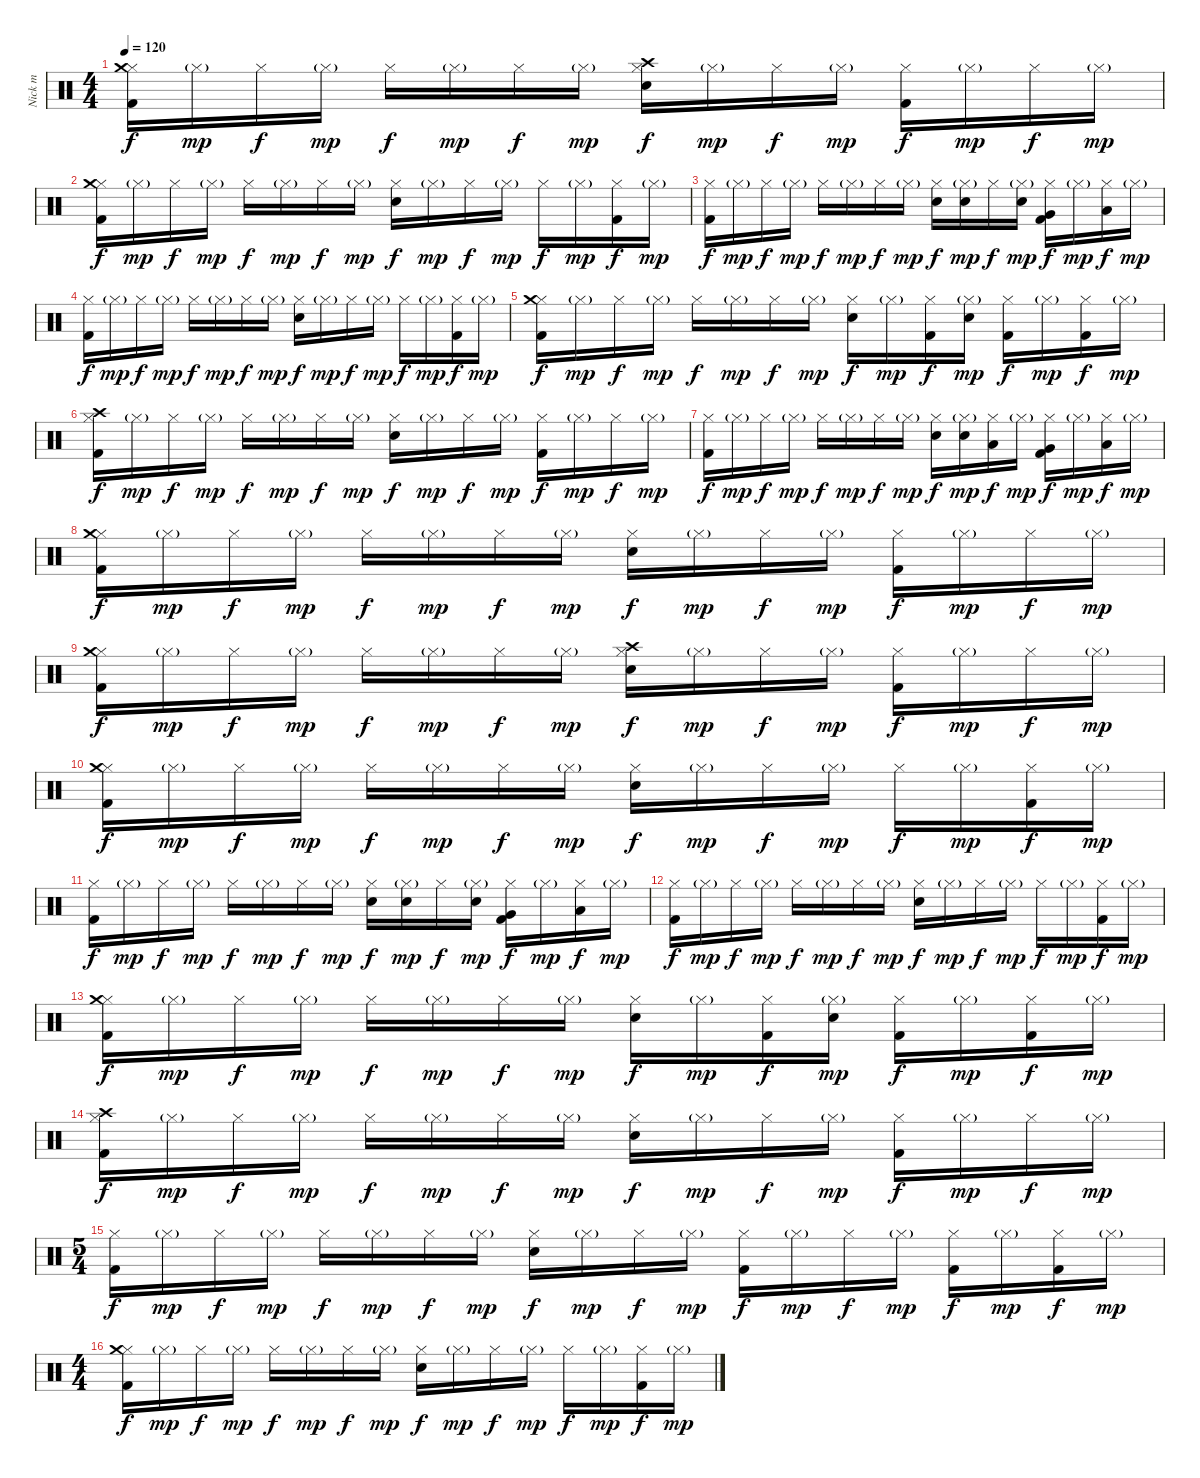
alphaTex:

\track ("Nick m" "Nick m") {instrument percussion}
\staff {score}
\articulation defaults
\ts (4 4)
\tempo 120
\clef neutral
\ks c
("Hi-Hat (closed)" "Crash medium (hit)" "Kick (hit) 2").16{dy f} "Hi-Hat (closed)"{g}.16{dy mp} "Hi-Hat (closed)".16{dy f} "Hi-Hat (closed)"{g}.16{dy mp} "Hi-Hat (closed)".16{dy f} "Hi-Hat (closed)"{g}.16{dy mp} "Hi-Hat (closed)".16{dy f} "Hi-Hat (closed)"{g}.16{dy mp} ("Hi-Hat (closed)" "Crash high (hit)" "Snare (hit) 2").16{dy f} "Hi-Hat (closed)"{g}.16{dy mp} "Hi-Hat (closed)".16{dy f} "Hi-Hat (closed)"{g}.16{dy mp} ("Hi-Hat (closed)" "Kick (hit) 2").16{dy f} "Hi-Hat (closed)"{g}.16{dy mp} "Hi-Hat (closed)".16{dy f} "Hi-Hat (closed)"{g}.16{dy mp} |
("Hi-Hat (closed)" "Crash medium (hit)" "Kick (hit) 2").16{dy f} "Hi-Hat (closed)"{g}.16{dy mp} "Hi-Hat (closed)".16{dy f} "Hi-Hat (closed)"{g}.16{dy mp} "Hi-Hat (closed)".16{dy f} "Hi-Hat (closed)"{g}.16{dy mp} "Hi-Hat (closed)".16{dy f} "Hi-Hat (closed)"{g}.16{dy mp} ("Hi-Hat (closed)" "Snare (hit) 2").16{dy f} "Hi-Hat (closed)"{g}.16{dy mp} "Hi-Hat (closed)".16{dy f} "Hi-Hat (closed)"{g}.16{dy mp} "Hi-Hat (closed)".16{dy f} "Hi-Hat (closed)"{g}.16{dy mp} ("Hi-Hat (closed)" "Kick (hit) 2").16{dy f} "Hi-Hat (closed)"{g}.16{dy mp} |
("Hi-Hat (closed)" "Kick (hit) 2").16{dy f} "Hi-Hat (closed)"{g}.16{dy mp} "Hi-Hat (closed)".16{dy f} "Hi-Hat (closed)"{g}.16{dy mp} "Hi-Hat (closed)".16{dy f} "Hi-Hat (closed)"{g}.16{dy mp} "Hi-Hat (closed)".16{dy f} "Hi-Hat (closed)"{g}.16{dy mp} ("Hi-Hat (closed)" "Snare (hit) 2").16{dy f} ("Hi-Hat (closed)"{g} "Snare (hit) 2").16{dy mp} "Hi-Hat (closed)".16{dy f} ("Hi-Hat (closed)"{g} "Snare (hit) 2").16{dy mp} ("Hi-Hat (closed)" "Very Low Tom (hit)" "Kick (hit) 2").16{dy f} "Hi-Hat (closed)"{g}.16{dy mp} ("Hi-Hat (closed)" "Low Floor Tom (hit)").16{dy f} "Hi-Hat (closed)"{g}.16{dy mp} |
("Hi-Hat (closed)" "Kick (hit) 2").16{dy f} "Hi-Hat (closed)"{g}.16{dy mp} "Hi-Hat (closed)".16{dy f} "Hi-Hat (closed)"{g}.16{dy mp} "Hi-Hat (closed)".16{dy f} "Hi-Hat (closed)"{g}.16{dy mp} "Hi-Hat (closed)".16{dy f} "Hi-Hat (closed)"{g}.16{dy mp} ("Hi-Hat (closed)" "Snare (hit) 2").16{dy f} "Hi-Hat (closed)"{g}.16{dy mp} "Hi-Hat (closed)".16{dy f} "Hi-Hat (closed)"{g}.16{dy mp} "Hi-Hat (closed)".16{dy f} "Hi-Hat (closed)"{g}.16{dy mp} ("Hi-Hat (closed)" "Kick (hit) 2").16{dy f} "Hi-Hat (closed)"{g}.16{dy mp} |
("Hi-Hat (closed)" "Crash medium (hit)" "Kick (hit) 2").16{dy f} "Hi-Hat (closed)"{g}.16{dy mp} "Hi-Hat (closed)".16{dy f} "Hi-Hat (closed)"{g}.16{dy mp} "Hi-Hat (closed)".16{dy f} "Hi-Hat (closed)"{g}.16{dy mp} "Hi-Hat (closed)".16{dy f} "Hi-Hat (closed)"{g}.16{dy mp} ("Hi-Hat (closed)" "Snare (hit) 2").16{dy f} "Hi-Hat (closed)"{g}.16{dy mp} ("Hi-Hat (closed)" "Kick (hit) 2").16{dy f} ("Hi-Hat (closed)"{g} "Snare (hit) 2").16{dy mp} ("Hi-Hat (closed)" "Kick (hit) 2").16{dy f} "Hi-Hat (closed)"{g}.16{dy mp} ("Hi-Hat (closed)" "Kick (hit) 2").16{dy f} "Hi-Hat (closed)"{g}.16{dy mp} |
("Hi-Hat (closed)" "Crash high (hit)" "Kick (hit) 2").16{dy f} "Hi-Hat (closed)"{g}.16{dy mp} "Hi-Hat (closed)".16{dy f} "Hi-Hat (closed)"{g}.16{dy mp} "Hi-Hat (closed)".16{dy f} "Hi-Hat (closed)"{g}.16{dy mp} "Hi-Hat (closed)".16{dy f} "Hi-Hat (closed)"{g}.16{dy mp} ("Hi-Hat (closed)" "Snare (hit) 2").16{dy f} "Hi-Hat (closed)"{g}.16{dy mp} "Hi-Hat (closed)".16{dy f} "Hi-Hat (closed)"{g}.16{dy mp} ("Hi-Hat (closed)" "Kick (hit) 2").16{dy f} "Hi-Hat (closed)"{g}.16{dy mp} "Hi-Hat (closed)".16{dy f} "Hi-Hat (closed)"{g}.16{dy mp} |
("Hi-Hat (closed)" "Kick (hit) 2").16{dy f} "Hi-Hat (closed)"{g}.16{dy mp} "Hi-Hat (closed)".16{dy f} "Hi-Hat (closed)"{g}.16{dy mp} "Hi-Hat (closed)".16{dy f} "Hi-Hat (closed)"{g}.16{dy mp} "Hi-Hat (closed)".16{dy f} "Hi-Hat (closed)"{g}.16{dy mp} ("Hi-Hat (closed)" "Snare (hit) 2").16{dy f} ("Hi-Hat (closed)"{g} "Snare (hit) 2").16{dy mp} ("Hi-Hat (closed)" "Low Tom (hit)").16{dy f} "Hi-Hat (closed)"{g}.16{dy mp} ("Hi-Hat (closed)" "Very Low Tom (hit)" "Kick (hit) 2").16{dy f} "Hi-Hat (closed)"{g}.16{dy mp} ("Hi-Hat (closed)" "Low Floor Tom (hit)").16{dy f} "Hi-Hat (closed)"{g}.16{dy mp} |
("Hi-Hat (closed)" "Crash medium (hit)" "Kick (hit) 2").16{dy f} "Hi-Hat (closed)"{g}.16{dy mp} "Hi-Hat (closed)".16{dy f} "Hi-Hat (closed)"{g}.16{dy mp} "Hi-Hat (closed)".16{dy f} "Hi-Hat (closed)"{g}.16{dy mp} "Hi-Hat (closed)".16{dy f} "Hi-Hat (closed)"{g}.16{dy mp} ("Hi-Hat (closed)" "Snare (hit) 2").16{dy f} "Hi-Hat (closed)"{g}.16{dy mp} "Hi-Hat (closed)".16{dy f} "Hi-Hat (closed)"{g}.16{dy mp} ("Hi-Hat (closed)" "Kick (hit) 2").16{dy f} "Hi-Hat (closed)"{g}.16{dy mp} "Hi-Hat (closed)".16{dy f} "Hi-Hat (closed)"{g}.16{dy mp} |
("Hi-Hat (closed)" "Crash medium (hit)" "Kick (hit) 2").16{dy f} "Hi-Hat (closed)"{g}.16{dy mp} "Hi-Hat (closed)".16{dy f} "Hi-Hat (closed)"{g}.16{dy mp} "Hi-Hat (closed)".16{dy f} "Hi-Hat (closed)"{g}.16{dy mp} "Hi-Hat (closed)".16{dy f} "Hi-Hat (closed)"{g}.16{dy mp} ("Hi-Hat (closed)" "Crash high (hit)" "Snare (hit) 2").16{dy f} "Hi-Hat (closed)"{g}.16{dy mp} "Hi-Hat (closed)".16{dy f} "Hi-Hat (closed)"{g}.16{dy mp} ("Hi-Hat (closed)" "Kick (hit) 2").16{dy f} "Hi-Hat (closed)"{g}.16{dy mp} "Hi-Hat (closed)".16{dy f} "Hi-Hat (closed)"{g}.16{dy mp} |
("Hi-Hat (closed)" "Crash medium (hit)" "Kick (hit) 2").16{dy f} "Hi-Hat (closed)"{g}.16{dy mp} "Hi-Hat (closed)".16{dy f} "Hi-Hat (closed)"{g}.16{dy mp} "Hi-Hat (closed)".16{dy f} "Hi-Hat (closed)"{g}.16{dy mp} "Hi-Hat (closed)".16{dy f} "Hi-Hat (closed)"{g}.16{dy mp} ("Hi-Hat (closed)" "Snare (hit) 2").16{dy f} "Hi-Hat (closed)"{g}.16{dy mp} "Hi-Hat (closed)".16{dy f} "Hi-Hat (closed)"{g}.16{dy mp} "Hi-Hat (closed)".16{dy f} "Hi-Hat (closed)"{g}.16{dy mp} ("Hi-Hat (closed)" "Kick (hit) 2").16{dy f} "Hi-Hat (closed)"{g}.16{dy mp} |
("Hi-Hat (closed)" "Kick (hit) 2").16{dy f} "Hi-Hat (closed)"{g}.16{dy mp} "Hi-Hat (closed)".16{dy f} "Hi-Hat (closed)"{g}.16{dy mp} "Hi-Hat (closed)".16{dy f} "Hi-Hat (closed)"{g}.16{dy mp} "Hi-Hat (closed)".16{dy f} "Hi-Hat (closed)"{g}.16{dy mp} ("Hi-Hat (closed)" "Snare (hit) 2").16{dy f} ("Hi-Hat (closed)"{g} "Snare (hit) 2").16{dy mp} "Hi-Hat (closed)".16{dy f} ("Hi-Hat (closed)"{g} "Snare (hit) 2").16{dy mp} ("Hi-Hat (closed)" "Very Low Tom (hit)" "Kick (hit) 2").16{dy f} "Hi-Hat (closed)"{g}.16{dy mp} ("Hi-Hat (closed)" "Low Floor Tom (hit)").16{dy f} "Hi-Hat (closed)"{g}.16{dy mp} |
("Hi-Hat (closed)" "Kick (hit) 2").16{dy f} "Hi-Hat (closed)"{g}.16{dy mp} "Hi-Hat (closed)".16{dy f} "Hi-Hat (closed)"{g}.16{dy mp} "Hi-Hat (closed)".16{dy f} "Hi-Hat (closed)"{g}.16{dy mp} "Hi-Hat (closed)".16{dy f} "Hi-Hat (closed)"{g}.16{dy mp} ("Hi-Hat (closed)" "Snare (hit) 2").16{dy f} "Hi-Hat (closed)"{g}.16{dy mp} "Hi-Hat (closed)".16{dy f} "Hi-Hat (closed)"{g}.16{dy mp} "Hi-Hat (closed)".16{dy f} "Hi-Hat (closed)"{g}.16{dy mp} ("Hi-Hat (closed)" "Kick (hit) 2").16{dy f} "Hi-Hat (closed)"{g}.16{dy mp} |
("Hi-Hat (closed)" "Crash medium (hit)" "Kick (hit) 2").16{dy f} "Hi-Hat (closed)"{g}.16{dy mp} "Hi-Hat (closed)".16{dy f} "Hi-Hat (closed)"{g}.16{dy mp} "Hi-Hat (closed)".16{dy f} "Hi-Hat (closed)"{g}.16{dy mp} "Hi-Hat (closed)".16{dy f} "Hi-Hat (closed)"{g}.16{dy mp} ("Hi-Hat (closed)" "Snare (hit) 2").16{dy f} "Hi-Hat (closed)"{g}.16{dy mp} ("Hi-Hat (closed)" "Kick (hit) 2").16{dy f} ("Hi-Hat (closed)"{g} "Snare (hit) 2").16{dy mp} ("Hi-Hat (closed)" "Kick (hit) 2").16{dy f} "Hi-Hat (closed)"{g}.16{dy mp} ("Hi-Hat (closed)" "Kick (hit) 2").16{dy f} "Hi-Hat (closed)"{g}.16{dy mp} |
("Hi-Hat (closed)" "Crash high (hit)" "Kick (hit) 2").16{dy f} "Hi-Hat (closed)"{g}.16{dy mp} "Hi-Hat (closed)".16{dy f} "Hi-Hat (closed)"{g}.16{dy mp} "Hi-Hat (closed)".16{dy f} "Hi-Hat (closed)"{g}.16{dy mp} "Hi-Hat (closed)".16{dy f} "Hi-Hat (closed)"{g}.16{dy mp} ("Hi-Hat (closed)" "Snare (hit) 2").16{dy f} "Hi-Hat (closed)"{g}.16{dy mp} "Hi-Hat (closed)".16{dy f} "Hi-Hat (closed)"{g}.16{dy mp} ("Hi-Hat (closed)" "Kick (hit) 2").16{dy f} "Hi-Hat (closed)"{g}.16{dy mp} "Hi-Hat (closed)".16{dy f} "Hi-Hat (closed)"{g}.16{dy mp} |
\ts (5 4)
("Hi-Hat (closed)" "Kick (hit) 2").16{dy f} "Hi-Hat (closed)"{g}.16{dy mp} "Hi-Hat (closed)".16{dy f} "Hi-Hat (closed)"{g}.16{dy mp} "Hi-Hat (closed)".16{dy f} "Hi-Hat (closed)"{g}.16{dy mp} "Hi-Hat (closed)".16{dy f} "Hi-Hat (closed)"{g}.16{dy mp} ("Hi-Hat (closed)" "Snare (hit) 2").16{dy f} "Hi-Hat (closed)"{g}.16{dy mp} "Hi-Hat (closed)".16{dy f} "Hi-Hat (closed)"{g}.16{dy mp} ("Hi-Hat (closed)" "Kick (hit) 2").16{dy f} "Hi-Hat (closed)"{g}.16{dy mp} "Hi-Hat (closed)".16{dy f} "Hi-Hat (closed)"{g}.16{dy mp} ("Hi-Hat (closed)" "Kick (hit) 2").16{dy f} "Hi-Hat (closed)"{g}.16{dy mp} ("Hi-Hat (closed)" "Kick (hit) 2").16{dy f} "Hi-Hat (closed)"{g}.16{dy mp} |
\ts (4 4)
("Hi-Hat (closed)" "Crash medium (hit)" "Kick (hit) 2").16{dy f} "Hi-Hat (closed)"{g}.16{dy mp} "Hi-Hat (closed)".16{dy f} "Hi-Hat (closed)"{g}.16{dy mp} "Hi-Hat (closed)".16{dy f} "Hi-Hat (closed)"{g}.16{dy mp} "Hi-Hat (closed)".16{dy f} "Hi-Hat (closed)"{g}.16{dy mp} ("Hi-Hat (closed)" "Snare (hit) 2").16{dy f} "Hi-Hat (closed)"{g}.16{dy mp} "Hi-Hat (closed)".16{dy f} "Hi-Hat (closed)"{g}.16{dy mp} "Hi-Hat (closed)".16{dy f} "Hi-Hat (closed)"{g}.16{dy mp} ("Hi-Hat (closed)" "Kick (hit) 2").16{dy f} "Hi-Hat (closed)"{g}.16{dy mp}
